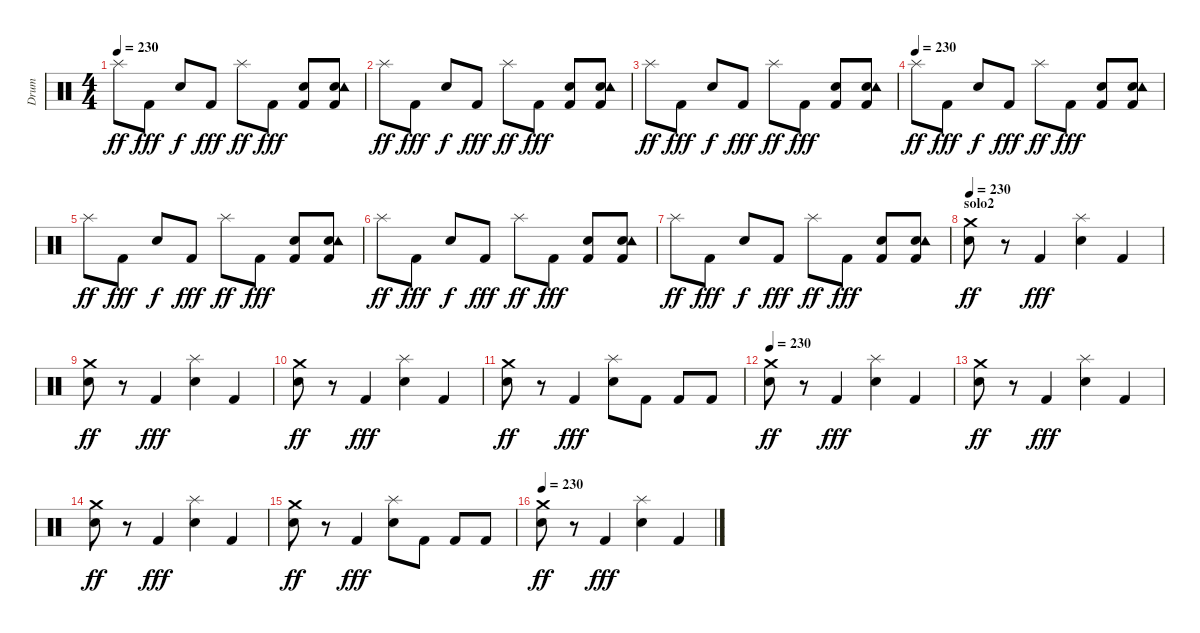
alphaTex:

\track ("Drum" "Drum") {instrument percussion}
\staff {score}
\articulation defaults
\ts (4 4)
\tempo 230
\clef neutral
\ks c "Splash (hit)".8{dy ff} "Kick (hit) 2".8{dy fff} "Electric Snare (hit)".8{dy f} "Kick (hit) 2".8{dy fff} "Splash (hit)".8{dy ff} "Kick (hit) 2".8{dy fff}
("Electric Snare (hit)" "Kick (hit) 2").8 ("Electric Snare (hit)" "Tambourine (hit)" "Kick (hit) 2").8 |
"Splash (hit)".8{dy ff} "Kick (hit) 2".8{dy fff} "Electric Snare (hit)".8{dy f} "Kick (hit) 2".8{dy fff} "Splash (hit)".8{dy ff} "Kick (hit) 2".8{dy fff} ("Electric Snare (hit)" "Kick (hit) 2").8 ("Electric Snare (hit)" "Tambourine (hit)" "Kick (hit) 2").8 |
"Splash (hit)".8{dy ff} "Kick (hit) 2".8{dy fff} "Electric Snare (hit)".8{dy f} "Kick (hit) 2".8{dy fff} "Splash (hit)".8{dy ff} "Kick (hit) 2".8{dy fff} ("Electric Snare (hit)" "Kick (hit) 2").8 ("Electric Snare (hit)" "Tambourine (hit)" "Kick (hit) 2").8 |
\tempo (230)
"Splash (hit)".8{dy ff} "Kick (hit) 2".8{dy fff} "Electric Snare (hit)".8{dy f} "Kick (hit) 2".8{dy fff} "Splash (hit)".8{dy ff} "Kick (hit) 2".8{dy fff} ("Electric Snare (hit)" "Kick (hit) 2").8 ("Electric Snare (hit)" "Tambourine (hit)" "Kick (hit) 2").8 |
"Splash (hit)".8{dy ff} "Kick (hit) 2".8{dy fff} "Electric Snare (hit)".8{dy f} "Kick (hit) 2".8{dy fff} "Splash (hit)".8{dy ff} "Kick (hit) 2".8{dy fff} ("Electric Snare (hit)" "Kick (hit) 2").8 ("Electric Snare (hit)" "Tambourine (hit)" "Kick (hit) 2").8 |
"Splash (hit)".8{dy ff} "Kick (hit) 2".8{dy fff} "Electric Snare (hit)".8{dy f} "Kick (hit) 2".8{dy fff} "Splash (hit)".8{dy ff} "Kick (hit) 2".8{dy fff} ("Electric Snare (hit)" "Kick (hit) 2").8 ("Electric Snare (hit)" "Tambourine (hit)" "Kick (hit) 2").8 |
"Splash (hit)".8{dy ff} "Kick (hit) 2".8{dy fff} "Electric Snare (hit)".8{dy f} "Kick (hit) 2".8{dy fff} "Splash (hit)".8{dy ff} "Kick (hit) 2".8{dy fff} ("Electric Snare (hit)" "Kick (hit) 2").8 ("Electric Snare (hit)" "Tambourine (hit)" "Kick (hit) 2").8 |
\section ("" "solo2")
\tempo 230
("Crash medium (hit)" "Electric Snare (hit)").8{dy ff} r.8 "Kick (hit) 2".4{dy fff} ("Splash (hit)" "Electric Snare (hit)").4 "Kick (hit) 2".4 |
("Crash medium (hit)" "Electric Snare (hit)").8{dy ff} r.8 "Kick (hit) 2".4{dy fff} ("Splash (hit)" "Electric Snare (hit)").4 "Kick (hit) 2".4 |
("Crash medium (hit)" "Electric Snare (hit)").8{dy ff} r.8 "Kick (hit) 2".4{dy fff} ("Splash (hit)" "Electric Snare (hit)").4 "Kick (hit) 2".4 |
("Crash medium (hit)" "Electric Snare (hit)").8{dy ff} r.8 "Kick (hit) 2".4{dy fff} ("Splash (hit)" "Electric Snare (hit)").8 "Kick (hit) 2".8 "Kick (hit) 2".8 "Kick (hit) 2".8 |
\tempo 230
("Crash medium (hit)" "Electric Snare (hit)").8{dy ff} r.8 "Kick (hit) 2".4{dy fff} ("Splash (hit)" "Electric Snare (hit)").4 "Kick (hit) 2".4 |
("Crash medium (hit)" "Electric Snare (hit)").8{dy ff} r.8 "Kick (hit) 2".4{dy fff} ("Splash (hit)" "Electric Snare (hit)").4 "Kick (hit) 2".4 |
("Crash medium (hit)" "Electric Snare (hit)").8{dy ff} r.8 "Kick (hit) 2".4{dy fff} ("Splash (hit)" "Electric Snare (hit)").4 "Kick (hit) 2".4 |
("Crash medium (hit)" "Electric Snare (hit)").8{dy ff} r.8 "Kick (hit) 2".4{dy fff} ("Splash (hit)" "Electric Snare (hit)").8 "Kick (hit) 2".8 "Kick (hit) 2".8 "Kick (hit) 2".8 |
\tempo 230
("Crash medium (hit)" "Electric Snare (hit)").8{dy ff} r.8 "Kick (hit) 2".4{dy fff} ("Splash (hit)" "Electric Snare (hit)").4 "Kick (hit) 2".4
